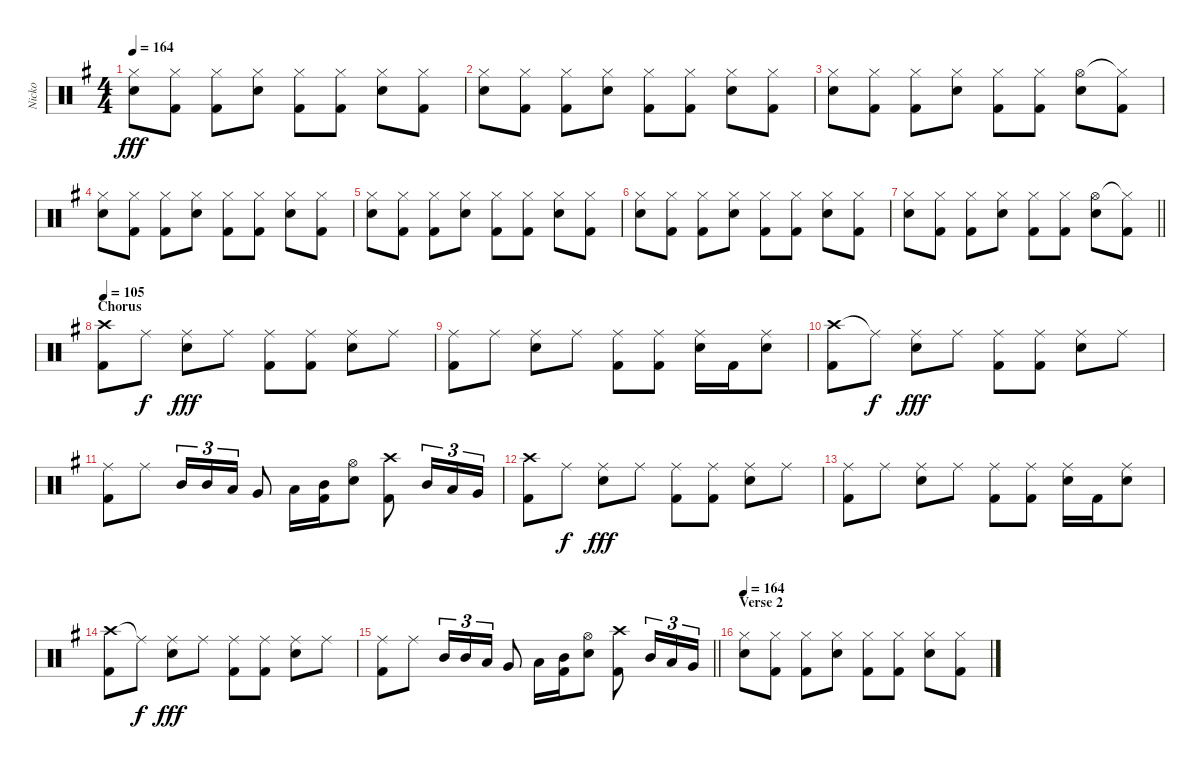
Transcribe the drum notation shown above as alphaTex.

\track ("Nicko" "Nicko") {instrument percussion}
\staff {score}
\articulation defaults
\ts (4 4)
\tempo 164
\clef neutral
\ks eminor
("Hi-Hat (closed)" "Snare (hit) 2").8{dy fff} ("Hi-Hat (closed)" "Kick (hit) 2").8 ("Hi-Hat (closed)" "Kick (hit) 2").8 ("Hi-Hat (closed)" "Snare (hit) 2").8 ("Hi-Hat (closed)" "Kick (hit) 2").8 ("Hi-Hat (closed)" "Kick (hit) 2").8 ("Hi-Hat (closed)" "Snare (hit) 2").8 ("Hi-Hat (closed)" "Kick (hit) 2").8 |
("Hi-Hat (closed)" "Snare (hit) 2").8 ("Hi-Hat (closed)" "Kick (hit) 2").8 ("Hi-Hat (closed)" "Kick (hit) 2").8 ("Hi-Hat (closed)" "Snare (hit) 2").8 ("Hi-Hat (closed)" "Kick (hit) 2").8 ("Hi-Hat (closed)" "Kick (hit) 2").8 ("Hi-Hat (closed)" "Snare (hit) 2").8 ("Hi-Hat (closed)" "Kick (hit) 2").8 |
("Hi-Hat (closed)" "Snare (hit) 2").8 ("Hi-Hat (closed)" "Kick (hit) 2").8 ("Hi-Hat (closed)" "Kick (hit) 2").8 ("Hi-Hat (closed)" "Snare (hit) 2").8 ("Hi-Hat (closed)" "Kick (hit) 2").8 ("Hi-Hat (closed)" "Kick (hit) 2").8 ("Hi-Hat (open)" "Snare (hit) 2").8 ("Hi-Hat (closed)"{t} "Kick (hit) 2").8 |
("Hi-Hat (closed)" "Snare (hit) 2").8 ("Hi-Hat (closed)" "Kick (hit) 2").8 ("Hi-Hat (closed)" "Kick (hit) 2").8 ("Hi-Hat (closed)" "Snare (hit) 2").8 ("Hi-Hat (closed)" "Kick (hit) 2").8 ("Hi-Hat (closed)" "Kick (hit) 2").8 ("Hi-Hat (closed)" "Snare (hit) 2").8 ("Hi-Hat (closed)" "Kick (hit) 2").8 |
("Hi-Hat (closed)" "Snare (hit) 2").8 ("Hi-Hat (closed)" "Kick (hit) 2").8 ("Hi-Hat (closed)" "Kick (hit) 2").8 ("Hi-Hat (closed)" "Snare (hit) 2").8 ("Hi-Hat (closed)" "Kick (hit) 2").8 ("Hi-Hat (closed)" "Kick (hit) 2").8 ("Hi-Hat (closed)" "Snare (hit) 2").8 ("Hi-Hat (closed)" "Kick (hit) 2").8 |
("Hi-Hat (closed)" "Snare (hit) 2").8 ("Hi-Hat (closed)" "Kick (hit) 2").8 ("Hi-Hat (closed)" "Kick (hit) 2").8 ("Hi-Hat (closed)" "Snare (hit) 2").8 ("Hi-Hat (closed)" "Kick (hit) 2").8 ("Hi-Hat (closed)" "Kick (hit) 2").8 ("Hi-Hat (closed)" "Snare (hit) 2").8 ("Hi-Hat (closed)" "Kick (hit) 2").8 |
\barLineRight lightlight
("Hi-Hat (closed)" "Snare (hit) 2").8 ("Hi-Hat (closed)" "Kick (hit) 2").8 ("Hi-Hat (closed)" "Kick (hit) 2").8 ("Hi-Hat (closed)" "Snare (hit) 2").8 ("Hi-Hat (closed)" "Kick (hit) 2").8 ("Hi-Hat (closed)" "Kick (hit) 2").8 ("Hi-Hat (open)" "Snare (hit) 2").8 ("Hi-Hat (closed)"{t} "Kick (hit) 2").8 |
\section ("" "Chorus")
\tempo 105
("Crash high (hit)" "Kick (hit) 2").8 "Ride (middle)".8{dy f} ("Ride (middle)" "Snare (hit) 2").8{dy fff} "Ride (middle)".8 ("Ride (middle)" "Kick (hit) 2").8 ("Ride (middle)" "Kick (hit) 2").8 ("Ride (middle)" "Snare (hit) 2").8 "Ride (middle)".8 |
("Ride (middle)" "Kick (hit) 2").8 "Ride (middle)".8 ("Ride (middle)" "Snare (hit) 2").8 "Ride (middle)".8 ("Ride (middle)" "Kick (hit) 2").8 ("Ride (middle)" "Kick (hit) 2").8 ("Ride (middle)" "Snare (hit) 2").16 "Kick (hit) 2".16 ("Ride (middle)" "Snare (hit) 2").8 |
("Crash high (hit)" "Kick (hit) 2").8 "Ride (middle)"{t}.8{dy f} ("Ride (middle)" "Snare (hit) 2").8{dy fff} "Ride (middle)".8 ("Ride (middle)" "Kick (hit) 2").8 ("Ride (middle)" "Kick (hit) 2").8 ("Ride (middle)" "Snare (hit) 2").8 "Ride (middle)".8 |
("Ride (middle)" "Kick (hit) 2").8 "Ride (middle)".8 "Mid Tom (hit)".16{tu (3 2)} "Mid Tom (hit)".16{tu (3 2)} "Low Tom (hit)".16{tu (3 2)} "Very Low Tom (hit)".8 "Low Tom (hit)".16 ("Mid Tom (hit)" "Kick (hit) 2").16 ("Hi-Hat (open)" "Snare (hit) 2").8 ("Crash high (hit)" "Kick (hit) 2").8 "Mid Tom (hit)".16{tu (3 2)} "Low Tom (hit)".16{tu (3 2)} "Very Low Tom (hit)".16{tu (3 2)} |
("Crash high (hit)" "Kick (hit) 2").8 "Ride (middle)".8{dy f} ("Ride (middle)" "Snare (hit) 2").8{dy fff} "Ride (middle)".8 ("Ride (middle)" "Kick (hit) 2").8 ("Ride (middle)" "Kick (hit) 2").8 ("Ride (middle)" "Snare (hit) 2").8 "Ride (middle)".8 |
("Ride (middle)" "Kick (hit) 2").8 "Ride (middle)".8 ("Ride (middle)" "Snare (hit) 2").8 "Ride (middle)".8 ("Ride (middle)" "Kick (hit) 2").8 ("Ride (middle)" "Kick (hit) 2").8 ("Ride (middle)" "Snare (hit) 2").16 "Kick (hit) 2".16 ("Ride (middle)" "Snare (hit) 2").8 |
("Crash high (hit)" "Kick (hit) 2").8 "Ride (middle)"{t}.8{dy f} ("Ride (middle)" "Snare (hit) 2").8{dy fff} "Ride (middle)".8 ("Ride (middle)" "Kick (hit) 2").8 ("Ride (middle)" "Kick (hit) 2").8 ("Ride (middle)" "Snare (hit) 2").8 "Ride (middle)".8 |
\barLineRight lightlight
("Ride (middle)" "Kick (hit) 2").8 "Ride (middle)".8 "Mid Tom (hit)".16{tu (3 2)} "Mid Tom (hit)".16{tu (3 2)} "Low Tom (hit)".16{tu (3 2)} "Very Low Tom (hit)".8 "Low Tom (hit)".16 ("Mid Tom (hit)" "Kick (hit) 2").16 ("Hi-Hat (open)" "Snare (hit) 2").8 ("Crash high (hit)" "Kick (hit) 2").8 "Mid Tom (hit)".16{tu (3 2)} "Low Tom (hit)".16{tu (3 2)} "Very Low Tom (hit)".16{tu (3 2)} |
\section ("" "Verse 2")
\tempo 164
("Hi-Hat (closed)" "Snare (hit) 2").8 ("Hi-Hat (closed)" "Kick (hit) 2").8 ("Hi-Hat (closed)" "Kick (hit) 2").8 ("Hi-Hat (closed)" "Snare (hit) 2").8 ("Hi-Hat (closed)" "Kick (hit) 2").8 ("Hi-Hat (closed)" "Kick (hit) 2").8 ("Hi-Hat (closed)" "Snare (hit) 2").8 ("Hi-Hat (closed)" "Kick (hit) 2").8
